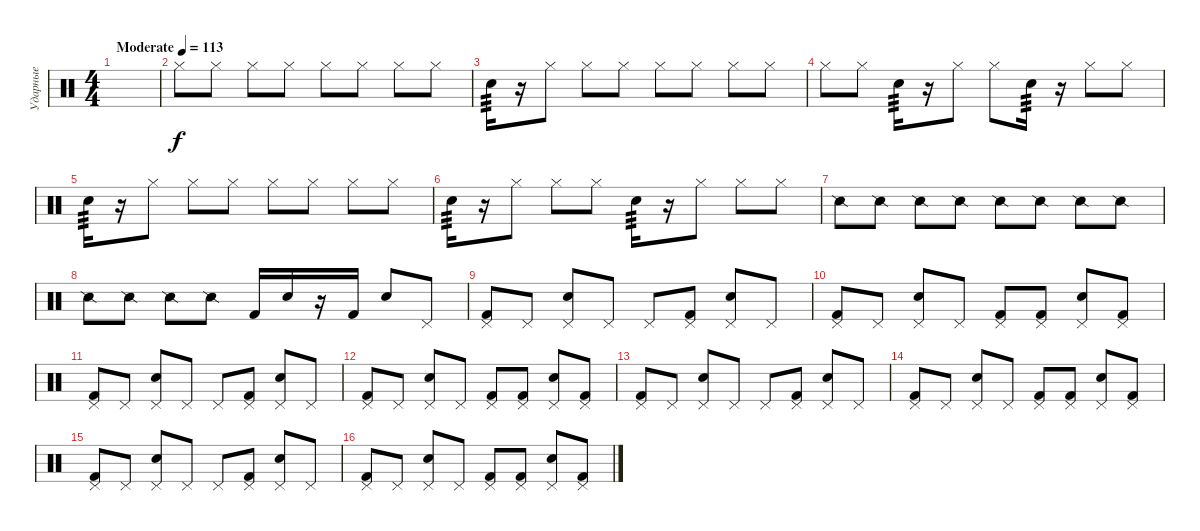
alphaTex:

\track ("Ударные" "Ударные") {instrument percussion}
\staff {score}
\articulation defaults
\ts (4 4)
\tempo (113 "Moderate")
\clef neutral
\ks c
|
"Hi-Hat (closed)".8 "Hi-Hat (closed)".8 "Hi-Hat (closed)".8 "Hi-Hat (closed)".8 "Hi-Hat (closed)".8 "Hi-Hat (closed)".8 "Hi-Hat (closed)".8 "Hi-Hat (closed)".8 |
"Electric Snare (hit)".16{tp 3} r.16 "Hi-Hat (closed)".8 "Hi-Hat (closed)".8 "Hi-Hat (closed)".8 "Hi-Hat (closed)".8 "Hi-Hat (closed)".8 "Hi-Hat (closed)".8 "Hi-Hat (closed)".8 |
"Hi-Hat (closed)".8 "Hi-Hat (closed)".8 "Electric Snare (hit)".16{tp 3} r.16 "Hi-Hat (closed)".8 "Hi-Hat (closed)".8 "Electric Snare (hit)".16{tp 3} r.16 "Hi-Hat (closed)".8 "Hi-Hat (closed)".8 |
"Electric Snare (hit)".16{tp 3} r.16 "Hi-Hat (closed)".8 "Hi-Hat (closed)".8 "Hi-Hat (closed)".8 "Hi-Hat (closed)".8 "Hi-Hat (closed)".8 "Hi-Hat (closed)".8 "Hi-Hat (closed)".8 |
"Electric Snare (hit)".16{tp 3} r.16 "Hi-Hat (closed)".8 "Hi-Hat (closed)".8 "Hi-Hat (closed)".8 "Electric Snare (hit)".16{tp 3} r.16 "Hi-Hat (closed)".8 "Hi-Hat (closed)".8 "Hi-Hat (closed)".8 |
"Snare (side stick) 2".8 "Snare (side stick) 2".8 "Snare (side stick) 2".8 "Snare (side stick) 2".8 "Snare (side stick) 2".8 "Snare (side stick) 2".8 "Snare (side stick) 2".8 "Snare (side stick) 2".8 |
"Snare (side stick) 2".8 "Snare (side stick) 2".8 "Snare (side stick) 2".8 "Snare (side stick) 2".8 "Kick (hit) 2".16 "Electric Snare (hit)".16 r.16 "Kick (hit) 2".16 "Electric Snare (hit)".8 "Pedal Hi-Hat (hit)".8 |
("Kick (hit) 2" "Pedal Hi-Hat (hit)").8 "Pedal Hi-Hat (hit)".8 ("Electric Snare (hit)" "Pedal Hi-Hat (hit)").8 "Pedal Hi-Hat (hit)".8 "Pedal Hi-Hat (hit)".8 ("Kick (hit) 2" "Pedal Hi-Hat (hit)").8 ("Electric Snare (hit)" "Pedal Hi-Hat (hit)").8 "Pedal Hi-Hat (hit)".8 |
("Kick (hit) 2" "Pedal Hi-Hat (hit)").8 "Pedal Hi-Hat (hit)".8 ("Electric Snare (hit)" "Pedal Hi-Hat (hit)").8 "Pedal Hi-Hat (hit)".8 ("Kick (hit) 2" "Pedal Hi-Hat (hit)").8 ("Kick (hit) 2" "Pedal Hi-Hat (hit)").8 ("Electric Snare (hit)" "Pedal Hi-Hat (hit)").8 ("Kick (hit) 2" "Pedal Hi-Hat (hit)").8 |
("Kick (hit) 2" "Pedal Hi-Hat (hit)").8 "Pedal Hi-Hat (hit)".8 ("Electric Snare (hit)" "Pedal Hi-Hat (hit)").8 "Pedal Hi-Hat (hit)".8 "Pedal Hi-Hat (hit)".8 ("Kick (hit) 2" "Pedal Hi-Hat (hit)").8 ("Electric Snare (hit)" "Pedal Hi-Hat (hit)").8 "Pedal Hi-Hat (hit)".8 |
("Kick (hit) 2" "Pedal Hi-Hat (hit)").8 "Pedal Hi-Hat (hit)".8 ("Electric Snare (hit)" "Pedal Hi-Hat (hit)").8 "Pedal Hi-Hat (hit)".8 ("Kick (hit) 2" "Pedal Hi-Hat (hit)").8 ("Kick (hit) 2" "Pedal Hi-Hat (hit)").8 ("Electric Snare (hit)" "Pedal Hi-Hat (hit)").8 ("Kick (hit) 2" "Pedal Hi-Hat (hit)").8 |
("Kick (hit) 2" "Pedal Hi-Hat (hit)").8 "Pedal Hi-Hat (hit)".8 ("Electric Snare (hit)" "Pedal Hi-Hat (hit)").8 "Pedal Hi-Hat (hit)".8 "Pedal Hi-Hat (hit)".8 ("Kick (hit) 2" "Pedal Hi-Hat (hit)").8 ("Electric Snare (hit)" "Pedal Hi-Hat (hit)").8 "Pedal Hi-Hat (hit)".8 |
("Kick (hit) 2" "Pedal Hi-Hat (hit)").8 "Pedal Hi-Hat (hit)".8 ("Electric Snare (hit)" "Pedal Hi-Hat (hit)").8 "Pedal Hi-Hat (hit)".8 ("Kick (hit) 2" "Pedal Hi-Hat (hit)").8 ("Kick (hit) 2" "Pedal Hi-Hat (hit)").8 ("Electric Snare (hit)" "Pedal Hi-Hat (hit)").8 ("Kick (hit) 2" "Pedal Hi-Hat (hit)").8 |
("Kick (hit) 2" "Pedal Hi-Hat (hit)").8 "Pedal Hi-Hat (hit)".8 ("Electric Snare (hit)" "Pedal Hi-Hat (hit)").8 "Pedal Hi-Hat (hit)".8 "Pedal Hi-Hat (hit)".8 ("Kick (hit) 2" "Pedal Hi-Hat (hit)").8 ("Electric Snare (hit)" "Pedal Hi-Hat (hit)").8 "Pedal Hi-Hat (hit)".8 |
("Kick (hit) 2" "Pedal Hi-Hat (hit)").8 "Pedal Hi-Hat (hit)".8 ("Electric Snare (hit)" "Pedal Hi-Hat (hit)").8 "Pedal Hi-Hat (hit)".8 ("Kick (hit) 2" "Pedal Hi-Hat (hit)").8 ("Kick (hit) 2" "Pedal Hi-Hat (hit)").8 ("Electric Snare (hit)" "Pedal Hi-Hat (hit)").8 ("Kick (hit) 2" "Pedal Hi-Hat (hit)").8
